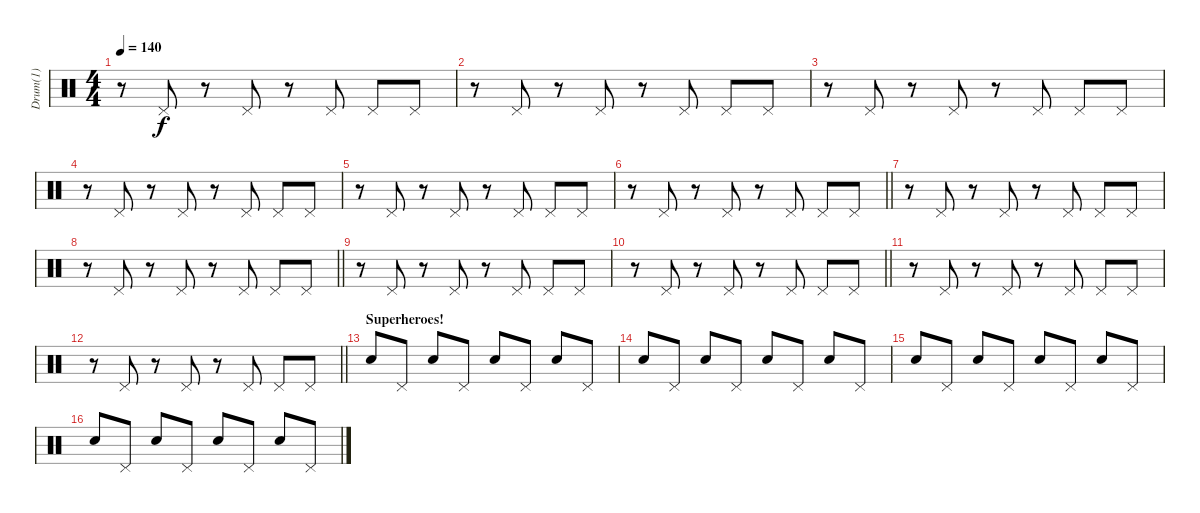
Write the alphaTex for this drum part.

\track ("Drum(1)" "Drum(1)") {instrument percussion}
\staff {score}
\articulation defaults
\ts (4 4)
\tempo 140
\clef neutral
\ks c
r.8{dy f} "Pedal Hi-Hat (hit)".8 r.8 "Pedal Hi-Hat (hit)".8 r.8 "Pedal Hi-Hat (hit)".8 "Pedal Hi-Hat (hit)".8 "Pedal Hi-Hat (hit)".8 |
r.8 "Pedal Hi-Hat (hit)".8 r.8 "Pedal Hi-Hat (hit)".8 r.8 "Pedal Hi-Hat (hit)".8 "Pedal Hi-Hat (hit)".8 "Pedal Hi-Hat (hit)".8 |
r.8 "Pedal Hi-Hat (hit)".8 r.8 "Pedal Hi-Hat (hit)".8 r.8 "Pedal Hi-Hat (hit)".8 "Pedal Hi-Hat (hit)".8 "Pedal Hi-Hat (hit)".8 |
r.8 "Pedal Hi-Hat (hit)".8 r.8 "Pedal Hi-Hat (hit)".8 r.8 "Pedal Hi-Hat (hit)".8 "Pedal Hi-Hat (hit)".8 "Pedal Hi-Hat (hit)".8 |
r.8 "Pedal Hi-Hat (hit)".8 r.8 "Pedal Hi-Hat (hit)".8 r.8 "Pedal Hi-Hat (hit)".8 "Pedal Hi-Hat (hit)".8 "Pedal Hi-Hat (hit)".8 |
\barLineRight lightlight
r.8 "Pedal Hi-Hat (hit)".8 r.8 "Pedal Hi-Hat (hit)".8 r.8 "Pedal Hi-Hat (hit)".8 "Pedal Hi-Hat (hit)".8 "Pedal Hi-Hat (hit)".8 |
r.8 "Pedal Hi-Hat (hit)".8 r.8 "Pedal Hi-Hat (hit)".8 r.8 "Pedal Hi-Hat (hit)".8 "Pedal Hi-Hat (hit)".8 "Pedal Hi-Hat (hit)".8 |
\barLineRight lightlight
r.8 "Pedal Hi-Hat (hit)".8 r.8 "Pedal Hi-Hat (hit)".8 r.8 "Pedal Hi-Hat (hit)".8 "Pedal Hi-Hat (hit)".8 "Pedal Hi-Hat (hit)".8 |
r.8 "Pedal Hi-Hat (hit)".8 r.8 "Pedal Hi-Hat (hit)".8 r.8 "Pedal Hi-Hat (hit)".8 "Pedal Hi-Hat (hit)".8 "Pedal Hi-Hat (hit)".8 |
\barLineRight lightlight
r.8 "Pedal Hi-Hat (hit)".8 r.8 "Pedal Hi-Hat (hit)".8 r.8 "Pedal Hi-Hat (hit)".8 "Pedal Hi-Hat (hit)".8 "Pedal Hi-Hat (hit)".8 |
r.8 "Pedal Hi-Hat (hit)".8 r.8 "Pedal Hi-Hat (hit)".8 r.8 "Pedal Hi-Hat (hit)".8 "Pedal Hi-Hat (hit)".8 "Pedal Hi-Hat (hit)".8 |
\barLineRight lightlight
r.8 "Pedal Hi-Hat (hit)".8 r.8 "Pedal Hi-Hat (hit)".8 r.8 "Pedal Hi-Hat (hit)".8 "Pedal Hi-Hat (hit)".8 "Pedal Hi-Hat (hit)".8 |
\section ("" "Superheroes!")
"Snare (hit) 2".8{volume 10} "Pedal Hi-Hat (hit)".8 "Snare (hit) 2".8 "Pedal Hi-Hat (hit)".8 "Snare (hit) 2".8 "Pedal Hi-Hat (hit)".8 "Snare (hit) 2".8 "Pedal Hi-Hat (hit)".8 |
"Snare (hit) 2".8 "Pedal Hi-Hat (hit)".8 "Snare (hit) 2".8 "Pedal Hi-Hat (hit)".8 "Snare (hit) 2".8 "Pedal Hi-Hat (hit)".8 "Snare (hit) 2".8 "Pedal Hi-Hat (hit)".8 |
"Snare (hit) 2".8 "Pedal Hi-Hat (hit)".8 "Snare (hit) 2".8 "Pedal Hi-Hat (hit)".8 "Snare (hit) 2".8 "Pedal Hi-Hat (hit)".8 "Snare (hit) 2".8 "Pedal Hi-Hat (hit)".8 |
"Snare (hit) 2".8 "Pedal Hi-Hat (hit)".8 "Snare (hit) 2".8 "Pedal Hi-Hat (hit)".8 "Snare (hit) 2".8 "Pedal Hi-Hat (hit)".8 "Snare (hit) 2".8 "Pedal Hi-Hat (hit)".8
